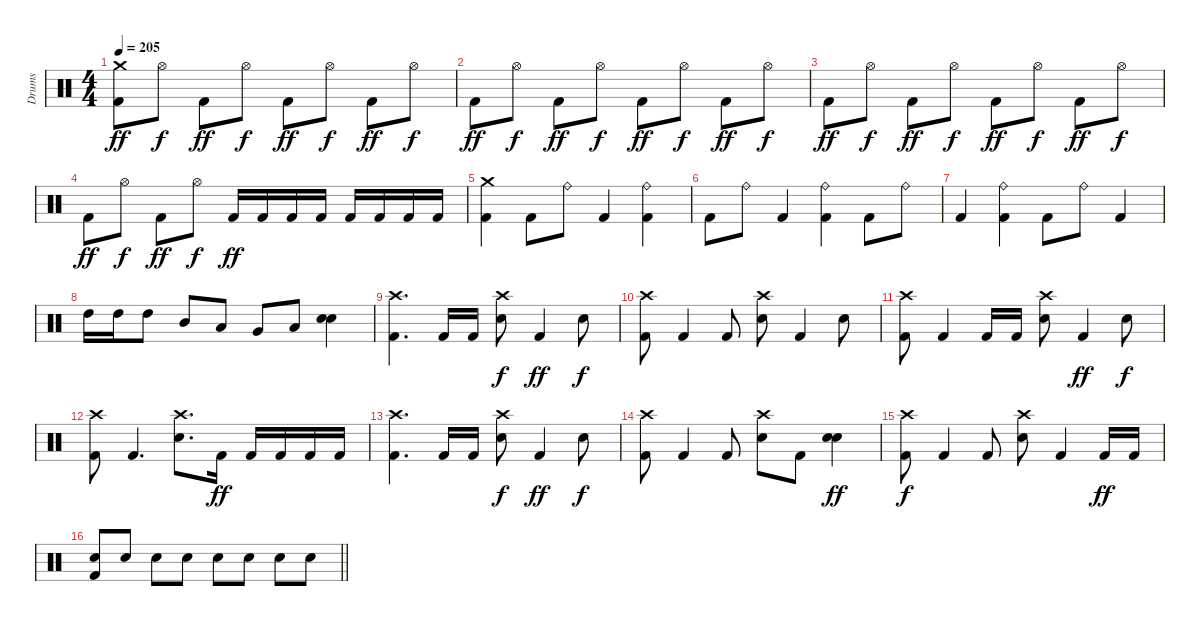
\track ("Drums" "Drums") {instrument percussion}
\staff {score}
\articulation defaults
\ts (4 4)
\tempo 205
\clef neutral
\ks c
("Crash medium (hit)" "Kick (hit) 2").8{dy ff} "Hi-Hat (open)".8{dy f} "Kick (hit) 2".8{dy ff} "Hi-Hat (open)".8{dy f} "Kick (hit) 2".8{dy ff} "Hi-Hat (open)".8{dy f} "Kick (hit) 2".8{dy ff} "Hi-Hat (open)".8{dy f} |
"Kick (hit) 2".8{dy ff} "Hi-Hat (open)".8{dy f} "Kick (hit) 2".8{dy ff} "Hi-Hat (open)".8{dy f} "Kick (hit) 2".8{dy ff} "Hi-Hat (open)".8{dy f} "Kick (hit) 2".8{dy ff} "Hi-Hat (open)".8{dy f} |
"Kick (hit) 2".8{dy ff} "Hi-Hat (open)".8{dy f} "Kick (hit) 2".8{dy ff} "Hi-Hat (open)".8{dy f} "Kick (hit) 2".8{dy ff} "Hi-Hat (open)".8{dy f} "Kick (hit) 2".8{dy ff} "Hi-Hat (open)".8{dy f} |
"Kick (hit) 2".8{dy ff} "Hi-Hat (open)".8{dy f} "Kick (hit) 2".8{dy ff} "Hi-Hat (open)".8{dy f} "Kick (hit) 2".16{dy ff} "Kick (hit) 2".16 "Kick (hit) 2".16 "Kick (hit) 2".16 "Kick (hit) 2".16 "Kick (hit) 2".16 "Kick (hit) 2".16 "Kick (hit) 2".16 |
("Crash medium (hit)" "Kick (hit) 2").4 "Kick (hit) 2".8 "Ride (bell)".8 "Kick (hit) 2".4 ("Ride (bell)" "Kick (hit) 2").4 |
"Kick (hit) 2".8 "Ride (bell)".8 "Kick (hit) 2".4 ("Ride (bell)" "Kick (hit) 2").4 "Kick (hit) 2".8 "Ride (bell)".8 |
"Kick (hit) 2".4 ("Ride (bell)" "Kick (hit) 2").4 "Kick (hit) 2".8 "Ride (bell)".8 "Kick (hit) 2".4 |
"High Tom (hit)".16 "High Tom (hit)".16 "High Tom (hit)".8 "Mid Tom (hit)".8 "Low Tom (hit)".8 "Very Low Tom (hit)".8 "Low Floor Tom (hit)".8 ("Snare (hit) 2" "Snare (hit) 2").4 |
("Crash high (hit)" "Kick (hit) 2").4{d} "Kick (hit) 2".16 "Kick (hit) 2".16 ("Crash high (hit)" "Snare (hit) 2").8{dy f} "Kick (hit) 2".4{dy ff} "Snare (hit) 2".8{dy f} |
("Crash high (hit)" "Kick (hit) 2").8 "Kick (hit) 2".4 "Kick (hit) 2".8 ("Crash high (hit)" "Snare (hit) 2").8 "Kick (hit) 2".4 "Snare (hit) 2".8 |
("Crash high (hit)" "Kick (hit) 2").8 "Kick (hit) 2".4 "Kick (hit) 2".16 "Kick (hit) 2".16 ("Crash high (hit)" "Snare (hit) 2").8 "Kick (hit) 2".4{dy ff} "Snare (hit) 2".8{dy f} |
("Crash high (hit)" "Kick (hit) 2").8 "Kick (hit) 2".4{d} ("Crash high (hit)" "Snare (hit) 2").8{d} "Kick (hit) 2".16{dy ff} "Kick (hit) 2".16 "Kick (hit) 2".16 "Kick (hit) 2".16 "Kick (hit) 2".16 |
("Crash high (hit)" "Kick (hit) 2").4{d} "Kick (hit) 2".16 "Kick (hit) 2".16 ("Crash high (hit)" "Snare (hit) 2").8{dy f} "Kick (hit) 2".4{dy ff} "Snare (hit) 2".8{dy f} |
("Crash high (hit)" "Kick (hit) 2").8 "Kick (hit) 2".4 "Kick (hit) 2".8 ("Crash high (hit)" "Snare (hit) 2").8 "Kick (hit) 2".8 ("Snare (hit) 2" "Snare (hit) 2").4{dy ff} |
("Crash high (hit)" "Kick (hit) 2").8{dy f} "Kick (hit) 2".4 "Kick (hit) 2".8 ("Crash high (hit)" "Snare (hit) 2").8 "Kick (hit) 2".4 "Kick (hit) 2".16{dy ff} "Kick (hit) 2".16 |
\barLineRight lightlight
("Snare (hit) 2" "Kick (hit) 2").8 "Snare (hit) 2".8 "Snare (hit) 2".8 "Snare (hit) 2".8 "Snare (hit) 2".8 "Snare (hit) 2".8 "Snare (hit) 2".8 "Snare (hit) 2".8
